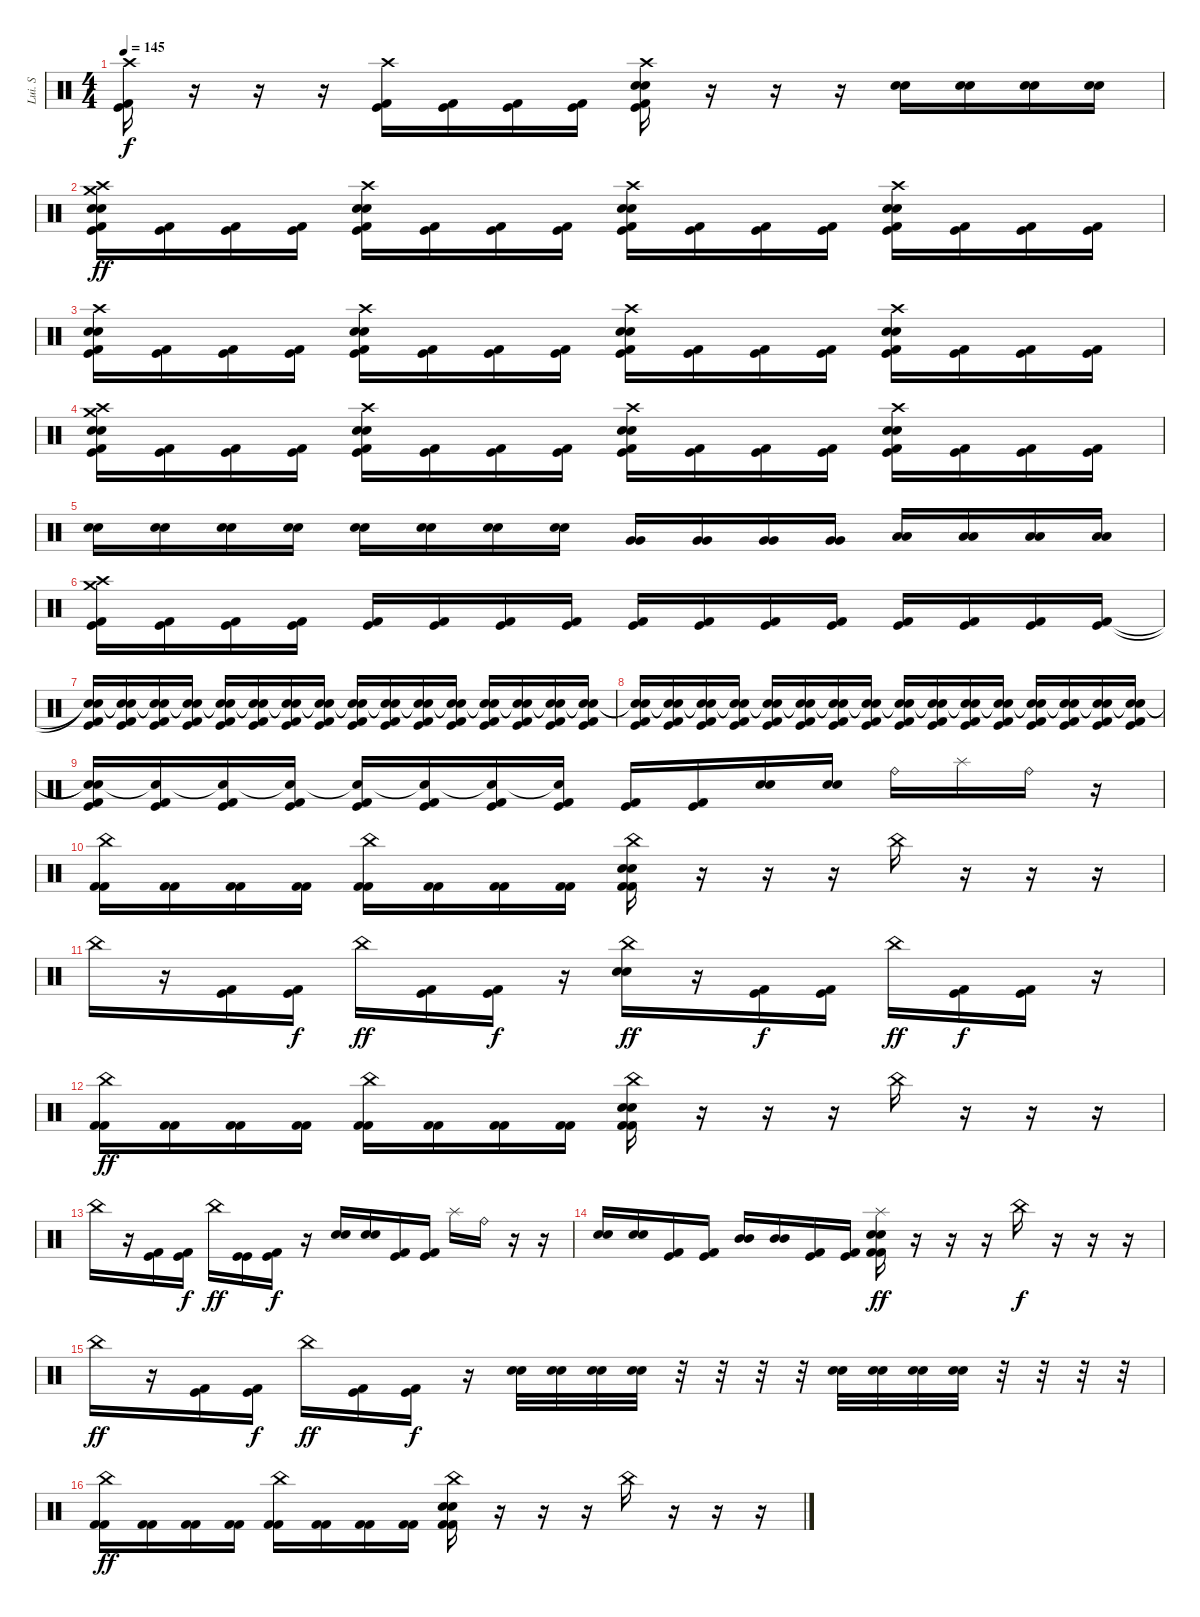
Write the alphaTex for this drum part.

\track ("Lui. S" "Lui. S") {instrument percussion}
\staff {score}
\articulation defaults
\ts (4 4)
\tempo 145
\clef neutral
\ks c
("Crash high (hit)" "Kick (hit) 2" "Kick (hit)").16{dy f} r.16 r.16 r.16 ("Crash high (hit)" "Kick (hit) 2" "Kick (hit)").16 ("Kick (hit) 2" "Kick (hit)").16 ("Kick (hit) 2" "Kick (hit)").16 ("Kick (hit) 2" "Kick (hit)").16 ("Crash high (hit)" "Electric Snare (hit)" "Snare (hit) 2" "Kick (hit) 2" "Kick (hit)").16 r.16 r.16 r.16 ("Snare (hit) 2" "Electric Snare (hit)").16 ("Snare (hit) 2" "Electric Snare (hit)").16 ("Snare (hit) 2" "Electric Snare (hit)").16 ("Snare (hit) 2" "Electric Snare (hit)").16 |
("Crash high (hit)" "Crash medium (hit)" "Electric Snare (hit)" "Snare (hit) 2" "Kick (hit)" "Kick (hit) 2").16{dy ff} ("Kick (hit)" "Kick (hit) 2").16 ("Kick (hit)" "Kick (hit) 2").16 ("Kick (hit)" "Kick (hit) 2").16 ("Crash high (hit)" "Electric Snare (hit)" "Snare (hit) 2" "Kick (hit)" "Kick (hit) 2").16 ("Kick (hit)" "Kick (hit) 2").16 ("Kick (hit)" "Kick (hit) 2").16 ("Kick (hit)" "Kick (hit) 2").16 ("Crash high (hit)" "Electric Snare (hit)" "Snare (hit) 2" "Kick (hit)" "Kick (hit) 2").16 ("Kick (hit)" "Kick (hit) 2").16 ("Kick (hit)" "Kick (hit) 2").16 ("Kick (hit)" "Kick (hit) 2").16 ("Crash high (hit)" "Electric Snare (hit)" "Snare (hit) 2" "Kick (hit)" "Kick (hit) 2").16 ("Kick (hit)" "Kick (hit) 2").16 ("Kick (hit)" "Kick (hit) 2").16 ("Kick (hit)" "Kick (hit) 2").16 |
("Crash high (hit)" "Electric Snare (hit)" "Snare (hit) 2" "Kick (hit)" "Kick (hit) 2").16 ("Kick (hit)" "Kick (hit) 2").16 ("Kick (hit)" "Kick (hit) 2").16 ("Kick (hit)" "Kick (hit) 2").16 ("Crash high (hit)" "Electric Snare (hit)" "Snare (hit) 2" "Kick (hit)" "Kick (hit) 2").16 ("Kick (hit)" "Kick (hit) 2").16 ("Kick (hit)" "Kick (hit) 2").16 ("Kick (hit)" "Kick (hit) 2").16 ("Crash high (hit)" "Electric Snare (hit)" "Snare (hit) 2" "Kick (hit)" "Kick (hit) 2").16 ("Kick (hit)" "Kick (hit) 2").16 ("Kick (hit)" "Kick (hit) 2").16 ("Kick (hit)" "Kick (hit) 2").16 ("Crash high (hit)" "Electric Snare (hit)" "Snare (hit) 2" "Kick (hit)" "Kick (hit) 2").16 ("Kick (hit)" "Kick (hit) 2").16 ("Kick (hit)" "Kick (hit) 2").16 ("Kick (hit)" "Kick (hit) 2").16 |
("Crash high (hit)" "Crash medium (hit)" "Electric Snare (hit)" "Snare (hit) 2" "Kick (hit)" "Kick (hit) 2").16 ("Kick (hit)" "Kick (hit) 2").16 ("Kick (hit)" "Kick (hit) 2").16 ("Kick (hit)" "Kick (hit) 2").16 ("Crash high (hit)" "Electric Snare (hit)" "Snare (hit) 2" "Kick (hit)" "Kick (hit) 2").16 ("Kick (hit)" "Kick (hit) 2").16 ("Kick (hit)" "Kick (hit) 2").16 ("Kick (hit)" "Kick (hit) 2").16 ("Crash high (hit)" "Electric Snare (hit)" "Snare (hit) 2" "Kick (hit)" "Kick (hit) 2").16 ("Kick (hit)" "Kick (hit) 2").16 ("Kick (hit)" "Kick (hit) 2").16 ("Kick (hit)" "Kick (hit) 2").16 ("Crash high (hit)" "Electric Snare (hit)" "Snare (hit) 2" "Kick (hit)" "Kick (hit) 2").16 ("Kick (hit)" "Kick (hit) 2").16 ("Kick (hit)" "Kick (hit) 2").16 ("Kick (hit)" "Kick (hit) 2").16 |
("Electric Snare (hit)" "Snare (hit) 2").16 ("Electric Snare (hit)" "Snare (hit) 2").16 ("Electric Snare (hit)" "Snare (hit) 2").16 ("Electric Snare (hit)" "Snare (hit) 2").16 ("Electric Snare (hit)" "Snare (hit) 2").16 ("Electric Snare (hit)" "Snare (hit) 2").16 ("Electric Snare (hit)" "Snare (hit) 2").16 ("Electric Snare (hit)" "Snare (hit) 2").16 ("Very Low Tom (hit)" "Very Low Tom (hit)").16 ("Very Low Tom (hit)" "Very Low Tom (hit)").16 ("Very Low Tom (hit)" "Very Low Tom (hit)").16 ("Very Low Tom (hit)" "Very Low Tom (hit)").16 ("Low Floor Tom (hit)" "Low Floor Tom (hit)").16 ("Low Floor Tom (hit)" "Low Floor Tom (hit)").16 ("Low Floor Tom (hit)" "Low Floor Tom (hit)").16 ("Low Floor Tom (hit)" "Low Floor Tom (hit)").16 |
("Crash high (hit)" "Crash medium (hit)" "Kick (hit)" "Kick (hit) 2").16 ("Kick (hit)" "Kick (hit) 2").16 ("Kick (hit)" "Kick (hit) 2").16 ("Kick (hit)" "Kick (hit) 2").16 ("Kick (hit)" "Kick (hit) 2").16 ("Kick (hit)" "Kick (hit) 2").16 ("Kick (hit)" "Kick (hit) 2").16 ("Kick (hit)" "Kick (hit) 2").16 ("Kick (hit)" "Kick (hit) 2").16 ("Kick (hit)" "Kick (hit) 2").16 ("Kick (hit)" "Kick (hit) 2").16 ("Kick (hit)" "Kick (hit) 2").16 ("Kick (hit)" "Kick (hit) 2").16 ("Kick (hit)" "Kick (hit) 2").16 ("Kick (hit)" "Kick (hit) 2").16 ("Kick (hit)" "Kick (hit) 2").16 |
("Snare (hit)"{t} "Snare (hit)"{t} "Kick (hit) 2" "Kick (hit)").16 ("Snare (hit)"{t} "Snare (hit)"{t} "Kick (hit) 2" "Kick (hit)").16 ("Snare (hit)"{t} "Snare (hit)"{t} "Kick (hit) 2" "Kick (hit)").16 ("Snare (hit)"{t} "Snare (hit)"{t} "Kick (hit) 2" "Kick (hit)").16 ("Snare (hit)"{t} "Snare (hit)"{t} "Kick (hit) 2" "Kick (hit)").16 ("Snare (hit)"{t} "Snare (hit)"{t} "Kick (hit) 2" "Kick (hit)").16 ("Snare (hit)"{t} "Snare (hit)"{t} "Kick (hit) 2" "Kick (hit)").16 ("Snare (hit)"{t} "Snare (hit)"{t} "Kick (hit) 2" "Kick (hit)").16 ("Snare (hit)"{t} "Snare (hit)"{t} "Kick (hit) 2" "Kick (hit)").16 ("Snare (hit)"{t} "Snare (hit)"{t} "Kick (hit) 2" "Kick (hit)").16 ("Snare (hit)"{t} "Snare (hit)"{t} "Kick (hit) 2" "Kick (hit)").16 ("Snare (hit)"{t} "Snare (hit)"{t} "Kick (hit) 2" "Kick (hit)").16 ("Snare (hit)"{t} "Snare (hit)"{t} "Kick (hit) 2" "Kick (hit)").16 ("Snare (hit)"{t} "Snare (hit)"{t} "Kick (hit) 2" "Kick (hit)").16 ("Snare (hit)"{t} "Snare (hit)"{t} "Kick (hit) 2" "Kick (hit)").16 ("Snare (hit)"{t} "Snare (hit)"{t} "Kick (hit) 2" "Kick (hit)").16 |
("Snare (hit)"{t} "Snare (hit)"{t} "Kick (hit) 2" "Kick (hit)").16 ("Snare (hit)"{t} "Snare (hit)"{t} "Kick (hit) 2" "Kick (hit)").16 ("Snare (hit)"{t} "Snare (hit)"{t} "Kick (hit) 2" "Kick (hit)").16 ("Snare (hit)"{t} "Snare (hit)"{t} "Kick (hit) 2" "Kick (hit)").16 ("Snare (hit)"{t} "Snare (hit)"{t} "Kick (hit) 2" "Kick (hit)").16 ("Snare (hit)"{t} "Snare (hit)"{t} "Kick (hit) 2" "Kick (hit)").16 ("Snare (hit)"{t} "Snare (hit)"{t} "Kick (hit) 2" "Kick (hit)").16 ("Snare (hit)"{t} "Snare (hit)"{t} "Kick (hit) 2" "Kick (hit)").16 ("Snare (hit)"{t} "Snare (hit)"{t} "Kick (hit) 2" "Kick (hit)").16 ("Snare (hit)"{t} "Snare (hit)"{t} "Kick (hit) 2" "Kick (hit)").16 ("Snare (hit)"{t} "Snare (hit)"{t} "Kick (hit) 2" "Kick (hit)").16 ("Snare (hit)"{t} "Snare (hit)"{t} "Kick (hit) 2" "Kick (hit)").16 ("Snare (hit)"{t} "Snare (hit)"{t} "Kick (hit) 2" "Kick (hit)").16 ("Snare (hit)"{t} "Snare (hit)"{t} "Kick (hit) 2" "Kick (hit)").16 ("Snare (hit)"{t} "Snare (hit)"{t} "Kick (hit) 2" "Kick (hit)").16 ("Snare (hit)"{t} "Snare (hit)"{t} "Kick (hit) 2" "Kick (hit)").16 |
("Snare (hit)"{t} "Snare (hit)"{t} "Kick (hit)" "Kick (hit) 2").16 ("Snare (hit)"{t} "Kick (hit)" "Kick (hit) 2").16 ("Snare (hit)"{t} "Kick (hit)" "Kick (hit) 2").16 ("Snare (hit)"{t} "Kick (hit)" "Kick (hit) 2").16 ("Snare (hit)"{t} "Kick (hit)" "Kick (hit) 2").16 ("Snare (hit)"{t} "Kick (hit)" "Kick (hit) 2").16 ("Snare (hit)"{t} "Kick (hit)" "Kick (hit) 2").16 ("Snare (hit)"{t} "Kick (hit)" "Kick (hit) 2").16 ("Kick (hit)" "Kick (hit) 2").16 ("Kick (hit)" "Kick (hit) 2").16 ("Snare (hit) 2" "Electric Snare (hit)").16 ("Snare (hit) 2" "Electric Snare (hit)").16 "Ride (bell)".16 "Splash (hit)".16 "Ride (bell)".16 r.16 |
("China (hit)" "Kick (hit) 2" "Kick (hit) 2").16 ("Kick (hit) 2" "Kick (hit) 2").16 ("Kick (hit) 2" "Kick (hit) 2").16 ("Kick (hit) 2" "Kick (hit) 2").16 ("China (hit)" "Kick (hit) 2" "Kick (hit) 2").16 ("Kick (hit) 2" "Kick (hit) 2").16 ("Kick (hit) 2" "Kick (hit) 2").16 ("Kick (hit) 2" "Kick (hit) 2").16 ("China (hit)" "Electric Snare (hit)" "Snare (hit) 2" "Kick (hit) 2" "Kick (hit) 2").16 r.16 r.16 r.16 "China (hit)".16 r.16 r.16 r.16 |
"China (hit)".16 r.16 ("Kick (hit)" "Kick (hit) 2").16 ("Kick (hit)" "Kick (hit) 2").16{dy f} "China (hit)".16{dy ff} ("Kick (hit)" "Kick (hit) 2").16 ("Kick (hit)" "Kick (hit) 2").16{dy f} r.16 ("China (hit)" "Electric Snare (hit)" "Snare (hit) 2").16{dy ff} r.16 ("Kick (hit)" "Kick (hit) 2").16{dy f} ("Kick (hit)" "Kick (hit) 2").16 "China (hit)".16{dy ff} ("Kick (hit)" "Kick (hit) 2").16{dy f} ("Kick (hit)" "Kick (hit) 2").16 r.16 |
("China (hit)" "Kick (hit) 2" "Kick (hit) 2").16{dy ff} ("Kick (hit) 2" "Kick (hit) 2").16 ("Kick (hit) 2" "Kick (hit) 2").16 ("Kick (hit) 2" "Kick (hit) 2").16 ("China (hit)" "Kick (hit) 2" "Kick (hit) 2").16 ("Kick (hit) 2" "Kick (hit) 2").16 ("Kick (hit) 2" "Kick (hit) 2").16 ("Kick (hit) 2" "Kick (hit) 2").16 ("China (hit)" "Electric Snare (hit)" "Snare (hit) 2" "Kick (hit) 2" "Kick (hit) 2").16 r.16 r.16 r.16 "China (hit)".16 r.16 r.16 r.16 |
"China (hit)".16 r.16 ("Kick (hit)" "Kick (hit) 2").16 ("Kick (hit)" "Kick (hit) 2").16{dy f} "China (hit)".16{dy ff} ("Kick (hit)" "Kick (hit)").16 ("Kick (hit)" "Kick (hit) 2").16{dy f} r.16 ("Electric Snare (hit)" "Snare (hit) 2").16 ("Electric Snare (hit)" "Snare (hit) 2").16 ("Kick (hit)" "Kick (hit) 2").16 ("Kick (hit)" "Kick (hit) 2").16 "Splash (hit)".16 "Ride (bell)".16 r.16 r.16 |
("Electric Snare (hit)" "Snare (hit) 2").16 ("Electric Snare (hit)" "Snare (hit) 2").16 ("Kick (hit) 2" "Kick (hit)").16 ("Kick (hit) 2" "Kick (hit)").16 ("Mid Tom (hit)" "Mid Tom (hit)").16 ("Mid Tom (hit)" "Mid Tom (hit)").16 ("Kick (hit) 2" "Kick (hit)").16 ("Kick (hit) 2" "Kick (hit)").16 ("Splash (hit)" "Electric Snare (hit)" "Snare (hit) 2" "Kick (hit) 2" "Kick (hit) 2").16{dy ff} r.16 r.16 r.16 "China (hit)".16{dy f} r.16 r.16 r.16 |
"China (hit)".16{dy ff} r.16 ("Kick (hit)" "Kick (hit) 2").16 ("Kick (hit)" "Kick (hit) 2").16{dy f} "China (hit)".16{dy ff} ("Kick (hit)" "Kick (hit) 2").16 ("Kick (hit)" "Kick (hit) 2").16{dy f} r.16 ("Electric Snare (hit)" "Snare (hit) 2").32 ("Electric Snare (hit)" "Snare (hit) 2").32 ("Electric Snare (hit)" "Snare (hit) 2").32 ("Electric Snare (hit)" "Snare (hit) 2").32 r.32 r.32 r.32 r.32 ("Electric Snare (hit)" "Snare (hit) 2").32 ("Electric Snare (hit)" "Snare (hit) 2").32 ("Electric Snare (hit)" "Snare (hit) 2").32 ("Electric Snare (hit)" "Snare (hit) 2").32 r.32 r.32 r.32 r.32 |
("China (hit)" "Kick (hit) 2" "Kick (hit) 2").16{dy ff} ("Kick (hit) 2" "Kick (hit) 2").16 ("Kick (hit) 2" "Kick (hit) 2").16 ("Kick (hit) 2" "Kick (hit) 2").16 ("China (hit)" "Kick (hit) 2" "Kick (hit) 2").16 ("Kick (hit) 2" "Kick (hit) 2").16 ("Kick (hit) 2" "Kick (hit) 2").16 ("Kick (hit) 2" "Kick (hit) 2").16 ("China (hit)" "Electric Snare (hit)" "Snare (hit) 2" "Kick (hit) 2" "Kick (hit) 2").16 r.16 r.16 r.16 "China (hit)".16 r.16 r.16 r.16
